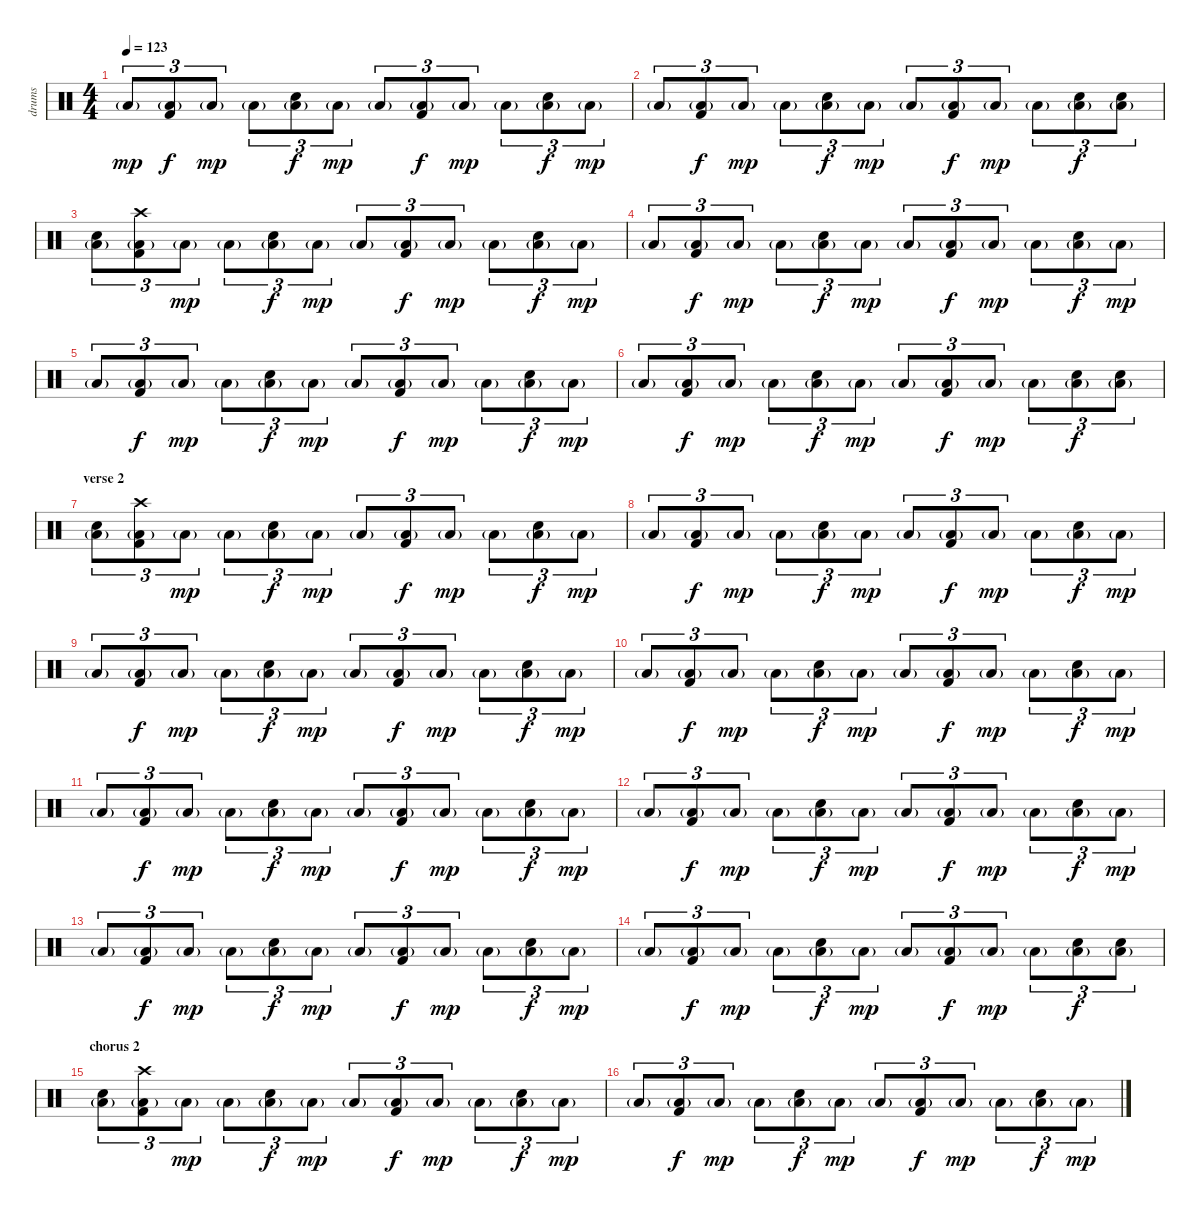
\track ("drums" "drums") {instrument percussion}
\staff {score}
\articulation defaults
\ts (4 4)
\tempo 123
\clef neutral
\ks c "Low Floor Tom (hit)"{g}.8{tu (3 2) txt "" dy mp}
("Low Floor Tom (hit)"{g} "Kick (hit) 2").8{tu (3 2) txt "" dy f} "Low Floor Tom (hit)"{g}.8{tu (3 2) txt "" dy mp} "Low Floor Tom (hit)"{g}.8{tu (3 2) txt ""} ("Low Floor Tom (hit)"{g} "Electric Snare (hit)").8{tu (3 2) txt "" dy f} "Low Floor Tom (hit)"{g}.8{tu (3 2) txt "" dy mp} "Low Floor Tom (hit)"{g}.8{tu (3 2) txt ""} ("Low Floor Tom (hit)"{g} "Kick (hit) 2").8{tu (3 2) txt "" dy f} "Low Floor Tom (hit)"{g}.8{tu (3 2) txt "" dy mp} "Low Floor Tom (hit)"{g}.8{tu (3 2) txt ""} ("Low Floor Tom (hit)"{g} "Electric Snare (hit)").8{tu (3 2) txt "" dy f} "Low Floor Tom (hit)"{g}.8{tu (3 2) txt "" dy mp} |
"Low Floor Tom (hit)"{g}.8{tu (3 2) txt ""} ("Low Floor Tom (hit)"{g} "Kick (hit) 2").8{tu (3 2) txt "" dy f} "Low Floor Tom (hit)"{g}.8{tu (3 2) txt "" dy mp} "Low Floor Tom (hit)"{g}.8{tu (3 2) txt ""} ("Low Floor Tom (hit)"{g} "Electric Snare (hit)").8{tu (3 2) txt "" dy f} "Low Floor Tom (hit)"{g}.8{tu (3 2) txt "" dy mp} "Low Floor Tom (hit)"{g}.8{tu (3 2) txt ""} ("Low Floor Tom (hit)"{g} "Kick (hit) 2").8{tu (3 2) txt "" dy f} "Low Floor Tom (hit)"{g}.8{tu (3 2) txt "" dy mp} "Low Floor Tom (hit)"{g}.8{tu (3 2) txt ""} ("Low Floor Tom (hit)"{g} "Electric Snare (hit)").8{tu (3 2) txt "" dy f} ("Low Floor Tom (hit)"{g} "Electric Snare (hit)").8{tu (3 2) txt ""} |
("Low Floor Tom (hit)"{g} "Electric Snare (hit)").8{tu (3 2) txt ""} ("Low Floor Tom (hit)"{g} "Kick (hit) 2" "Crash high (hit)").8{tu (3 2) txt ""} "Low Floor Tom (hit)"{g}.8{tu (3 2) txt "" dy mp} "Low Floor Tom (hit)"{g}.8{tu (3 2) txt ""} ("Low Floor Tom (hit)"{g} "Electric Snare (hit)").8{tu (3 2) txt "" dy f} "Low Floor Tom (hit)"{g}.8{tu (3 2) txt "" dy mp} "Low Floor Tom (hit)"{g}.8{tu (3 2) txt ""} ("Low Floor Tom (hit)"{g} "Kick (hit) 2").8{tu (3 2) txt "" dy f} "Low Floor Tom (hit)"{g}.8{tu (3 2) txt "" dy mp} "Low Floor Tom (hit)"{g}.8{tu (3 2) txt ""} ("Low Floor Tom (hit)"{g} "Electric Snare (hit)").8{tu (3 2) txt "" dy f} "Low Floor Tom (hit)"{g}.8{tu (3 2) txt "" dy mp} |
"Low Floor Tom (hit)"{g}.8{tu (3 2) txt ""} ("Low Floor Tom (hit)"{g} "Kick (hit) 2").8{tu (3 2) txt "" dy f} "Low Floor Tom (hit)"{g}.8{tu (3 2) txt "" dy mp} "Low Floor Tom (hit)"{g}.8{tu (3 2) txt ""} ("Low Floor Tom (hit)"{g} "Electric Snare (hit)").8{tu (3 2) txt "" dy f} "Low Floor Tom (hit)"{g}.8{tu (3 2) txt "" dy mp} "Low Floor Tom (hit)"{g}.8{tu (3 2) txt ""} ("Low Floor Tom (hit)"{g} "Kick (hit) 2").8{tu (3 2) txt "" dy f} "Low Floor Tom (hit)"{g}.8{tu (3 2) txt "" dy mp} "Low Floor Tom (hit)"{g}.8{tu (3 2) txt ""} ("Low Floor Tom (hit)"{g} "Electric Snare (hit)").8{tu (3 2) txt "" dy f} "Low Floor Tom (hit)"{g}.8{tu (3 2) txt "" dy mp} |
"Low Floor Tom (hit)"{g}.8{tu (3 2) txt ""} ("Low Floor Tom (hit)"{g} "Kick (hit) 2").8{tu (3 2) txt "" dy f} "Low Floor Tom (hit)"{g}.8{tu (3 2) txt "" dy mp} "Low Floor Tom (hit)"{g}.8{tu (3 2) txt ""} ("Low Floor Tom (hit)"{g} "Electric Snare (hit)").8{tu (3 2) txt "" dy f} "Low Floor Tom (hit)"{g}.8{tu (3 2) txt "" dy mp} "Low Floor Tom (hit)"{g}.8{tu (3 2) txt ""} ("Low Floor Tom (hit)"{g} "Kick (hit) 2").8{tu (3 2) txt "" dy f} "Low Floor Tom (hit)"{g}.8{tu (3 2) txt "" dy mp} "Low Floor Tom (hit)"{g}.8{tu (3 2) txt ""} ("Low Floor Tom (hit)"{g} "Electric Snare (hit)").8{tu (3 2) txt "" dy f} "Low Floor Tom (hit)"{g}.8{tu (3 2) txt "" dy mp} |
"Low Floor Tom (hit)"{g}.8{tu (3 2) txt ""} ("Low Floor Tom (hit)"{g} "Kick (hit) 2").8{tu (3 2) txt "" dy f} "Low Floor Tom (hit)"{g}.8{tu (3 2) txt "" dy mp} "Low Floor Tom (hit)"{g}.8{tu (3 2) txt ""} ("Low Floor Tom (hit)"{g} "Electric Snare (hit)").8{tu (3 2) txt "" dy f} "Low Floor Tom (hit)"{g}.8{tu (3 2) txt "" dy mp} "Low Floor Tom (hit)"{g}.8{tu (3 2) txt ""} ("Low Floor Tom (hit)"{g} "Kick (hit) 2").8{tu (3 2) txt "" dy f} "Low Floor Tom (hit)"{g}.8{tu (3 2) txt "" dy mp} "Low Floor Tom (hit)"{g}.8{tu (3 2) txt ""} ("Low Floor Tom (hit)"{g} "Electric Snare (hit)").8{tu (3 2) txt "" dy f} ("Low Floor Tom (hit)"{g} "Electric Snare (hit)").8{tu (3 2) txt ""} |
\section ("" "verse 2")
("Low Floor Tom (hit)"{g} "Electric Snare (hit)").8{tu (3 2) txt ""} ("Low Floor Tom (hit)"{g} "Kick (hit) 2" "Crash high (hit)").8{tu (3 2) txt ""} "Low Floor Tom (hit)"{g}.8{tu (3 2) txt "" dy mp} "Low Floor Tom (hit)"{g}.8{tu (3 2) txt ""} ("Low Floor Tom (hit)"{g} "Electric Snare (hit)").8{tu (3 2) txt "" dy f} "Low Floor Tom (hit)"{g}.8{tu (3 2) txt "" dy mp} "Low Floor Tom (hit)"{g}.8{tu (3 2) txt ""} ("Low Floor Tom (hit)"{g} "Kick (hit) 2").8{tu (3 2) txt "" dy f} "Low Floor Tom (hit)"{g}.8{tu (3 2) txt "" dy mp} "Low Floor Tom (hit)"{g}.8{tu (3 2) txt ""} ("Low Floor Tom (hit)"{g} "Electric Snare (hit)").8{tu (3 2) txt "" dy f} "Low Floor Tom (hit)"{g}.8{tu (3 2) txt "" dy mp} |
"Low Floor Tom (hit)"{g}.8{tu (3 2) txt ""} ("Low Floor Tom (hit)"{g} "Kick (hit) 2").8{tu (3 2) txt "" dy f} "Low Floor Tom (hit)"{g}.8{tu (3 2) txt "" dy mp} "Low Floor Tom (hit)"{g}.8{tu (3 2) txt ""} ("Low Floor Tom (hit)"{g} "Electric Snare (hit)").8{tu (3 2) txt "" dy f} "Low Floor Tom (hit)"{g}.8{tu (3 2) txt "" dy mp} "Low Floor Tom (hit)"{g}.8{tu (3 2) txt ""} ("Low Floor Tom (hit)"{g} "Kick (hit) 2").8{tu (3 2) txt "" dy f} "Low Floor Tom (hit)"{g}.8{tu (3 2) txt "" dy mp} "Low Floor Tom (hit)"{g}.8{tu (3 2) txt ""} ("Low Floor Tom (hit)"{g} "Electric Snare (hit)").8{tu (3 2) txt "" dy f} "Low Floor Tom (hit)"{g}.8{tu (3 2) txt "" dy mp} |
"Low Floor Tom (hit)"{g}.8{tu (3 2) txt ""} ("Low Floor Tom (hit)"{g} "Kick (hit) 2").8{tu (3 2) txt "" dy f} "Low Floor Tom (hit)"{g}.8{tu (3 2) txt "" dy mp} "Low Floor Tom (hit)"{g}.8{tu (3 2) txt ""} ("Low Floor Tom (hit)"{g} "Electric Snare (hit)").8{tu (3 2) txt "" dy f} "Low Floor Tom (hit)"{g}.8{tu (3 2) txt "" dy mp} "Low Floor Tom (hit)"{g}.8{tu (3 2) txt ""} ("Low Floor Tom (hit)"{g} "Kick (hit) 2").8{tu (3 2) txt "" dy f} "Low Floor Tom (hit)"{g}.8{tu (3 2) txt "" dy mp} "Low Floor Tom (hit)"{g}.8{tu (3 2) txt ""} ("Low Floor Tom (hit)"{g} "Electric Snare (hit)").8{tu (3 2) txt "" dy f} "Low Floor Tom (hit)"{g}.8{tu (3 2) txt "" dy mp} |
"Low Floor Tom (hit)"{g}.8{tu (3 2) txt ""} ("Low Floor Tom (hit)"{g} "Kick (hit) 2").8{tu (3 2) txt "" dy f} "Low Floor Tom (hit)"{g}.8{tu (3 2) txt "" dy mp} "Low Floor Tom (hit)"{g}.8{tu (3 2) txt ""} ("Low Floor Tom (hit)"{g} "Electric Snare (hit)").8{tu (3 2) txt "" dy f} "Low Floor Tom (hit)"{g}.8{tu (3 2) txt "" dy mp} "Low Floor Tom (hit)"{g}.8{tu (3 2) txt ""} ("Low Floor Tom (hit)"{g} "Kick (hit) 2").8{tu (3 2) txt "" dy f} "Low Floor Tom (hit)"{g}.8{tu (3 2) txt "" dy mp} "Low Floor Tom (hit)"{g}.8{tu (3 2) txt ""} ("Low Floor Tom (hit)"{g} "Electric Snare (hit)").8{tu (3 2) txt "" dy f} "Low Floor Tom (hit)"{g}.8{tu (3 2) txt "" dy mp} |
"Low Floor Tom (hit)"{g}.8{tu (3 2) txt ""} ("Low Floor Tom (hit)"{g} "Kick (hit) 2").8{tu (3 2) txt "" dy f} "Low Floor Tom (hit)"{g}.8{tu (3 2) txt "" dy mp} "Low Floor Tom (hit)"{g}.8{tu (3 2) txt ""} ("Low Floor Tom (hit)"{g} "Electric Snare (hit)").8{tu (3 2) txt "" dy f} "Low Floor Tom (hit)"{g}.8{tu (3 2) txt "" dy mp} "Low Floor Tom (hit)"{g}.8{tu (3 2) txt ""} ("Low Floor Tom (hit)"{g} "Kick (hit) 2").8{tu (3 2) txt "" dy f} "Low Floor Tom (hit)"{g}.8{tu (3 2) txt "" dy mp} "Low Floor Tom (hit)"{g}.8{tu (3 2) txt ""} ("Low Floor Tom (hit)"{g} "Electric Snare (hit)").8{tu (3 2) txt "" dy f} "Low Floor Tom (hit)"{g}.8{tu (3 2) txt "" dy mp} |
"Low Floor Tom (hit)"{g}.8{tu (3 2) txt ""} ("Low Floor Tom (hit)"{g} "Kick (hit) 2").8{tu (3 2) txt "" dy f} "Low Floor Tom (hit)"{g}.8{tu (3 2) txt "" dy mp} "Low Floor Tom (hit)"{g}.8{tu (3 2) txt ""} ("Low Floor Tom (hit)"{g} "Electric Snare (hit)").8{tu (3 2) txt "" dy f} "Low Floor Tom (hit)"{g}.8{tu (3 2) txt "" dy mp} "Low Floor Tom (hit)"{g}.8{tu (3 2) txt ""} ("Low Floor Tom (hit)"{g} "Kick (hit) 2").8{tu (3 2) txt "" dy f} "Low Floor Tom (hit)"{g}.8{tu (3 2) txt "" dy mp} "Low Floor Tom (hit)"{g}.8{tu (3 2) txt ""} ("Low Floor Tom (hit)"{g} "Electric Snare (hit)").8{tu (3 2) txt "" dy f} "Low Floor Tom (hit)"{g}.8{tu (3 2) txt "" dy mp} |
"Low Floor Tom (hit)"{g}.8{tu (3 2) txt ""} ("Low Floor Tom (hit)"{g} "Kick (hit) 2").8{tu (3 2) txt "" dy f} "Low Floor Tom (hit)"{g}.8{tu (3 2) txt "" dy mp} "Low Floor Tom (hit)"{g}.8{tu (3 2) txt ""} ("Low Floor Tom (hit)"{g} "Electric Snare (hit)").8{tu (3 2) txt "" dy f} "Low Floor Tom (hit)"{g}.8{tu (3 2) txt "" dy mp} "Low Floor Tom (hit)"{g}.8{tu (3 2) txt ""} ("Low Floor Tom (hit)"{g} "Kick (hit) 2").8{tu (3 2) txt "" dy f} "Low Floor Tom (hit)"{g}.8{tu (3 2) txt "" dy mp} "Low Floor Tom (hit)"{g}.8{tu (3 2) txt ""} ("Low Floor Tom (hit)"{g} "Electric Snare (hit)").8{tu (3 2) txt "" dy f} "Low Floor Tom (hit)"{g}.8{tu (3 2) txt "" dy mp} |
"Low Floor Tom (hit)"{g}.8{tu (3 2) txt ""} ("Low Floor Tom (hit)"{g} "Kick (hit) 2").8{tu (3 2) txt "" dy f} "Low Floor Tom (hit)"{g}.8{tu (3 2) txt "" dy mp} "Low Floor Tom (hit)"{g}.8{tu (3 2) txt ""} ("Low Floor Tom (hit)"{g} "Electric Snare (hit)").8{tu (3 2) txt "" dy f} "Low Floor Tom (hit)"{g}.8{tu (3 2) txt "" dy mp} "Low Floor Tom (hit)"{g}.8{tu (3 2) txt ""} ("Low Floor Tom (hit)"{g} "Kick (hit) 2").8{tu (3 2) txt "" dy f} "Low Floor Tom (hit)"{g}.8{tu (3 2) txt "" dy mp} "Low Floor Tom (hit)"{g}.8{tu (3 2) txt ""} ("Low Floor Tom (hit)"{g} "Electric Snare (hit)").8{tu (3 2) txt "" dy f} ("Low Floor Tom (hit)"{g} "Electric Snare (hit)").8{tu (3 2) txt ""} |
\section ("" "chorus 2")
("Low Floor Tom (hit)"{g} "Electric Snare (hit)").8{tu (3 2) txt ""} ("Low Floor Tom (hit)"{g} "Kick (hit) 2" "Crash high (hit)").8{tu (3 2) txt ""} "Low Floor Tom (hit)"{g}.8{tu (3 2) txt "" dy mp} "Low Floor Tom (hit)"{g}.8{tu (3 2) txt ""} ("Low Floor Tom (hit)"{g} "Electric Snare (hit)").8{tu (3 2) txt "" dy f} "Low Floor Tom (hit)"{g}.8{tu (3 2) txt "" dy mp} "Low Floor Tom (hit)"{g}.8{tu (3 2) txt ""} ("Low Floor Tom (hit)"{g} "Kick (hit) 2").8{tu (3 2) txt "" dy f} "Low Floor Tom (hit)"{g}.8{tu (3 2) txt "" dy mp} "Low Floor Tom (hit)"{g}.8{tu (3 2) txt ""} ("Low Floor Tom (hit)"{g} "Electric Snare (hit)").8{tu (3 2) txt "" dy f} "Low Floor Tom (hit)"{g}.8{tu (3 2) txt "" dy mp} |
"Low Floor Tom (hit)"{g}.8{tu (3 2) txt ""} ("Low Floor Tom (hit)"{g} "Kick (hit) 2").8{tu (3 2) txt "" dy f} "Low Floor Tom (hit)"{g}.8{tu (3 2) txt "" dy mp} "Low Floor Tom (hit)"{g}.8{tu (3 2) txt ""} ("Low Floor Tom (hit)"{g} "Electric Snare (hit)").8{tu (3 2) txt "" dy f} "Low Floor Tom (hit)"{g}.8{tu (3 2) txt "" dy mp} "Low Floor Tom (hit)"{g}.8{tu (3 2) txt ""} ("Low Floor Tom (hit)"{g} "Kick (hit) 2").8{tu (3 2) txt "" dy f} "Low Floor Tom (hit)"{g}.8{tu (3 2) txt "" dy mp} "Low Floor Tom (hit)"{g}.8{tu (3 2) txt ""} ("Low Floor Tom (hit)"{g} "Electric Snare (hit)").8{tu (3 2) txt "" dy f} "Low Floor Tom (hit)"{g}.8{tu (3 2) txt "" dy mp}
